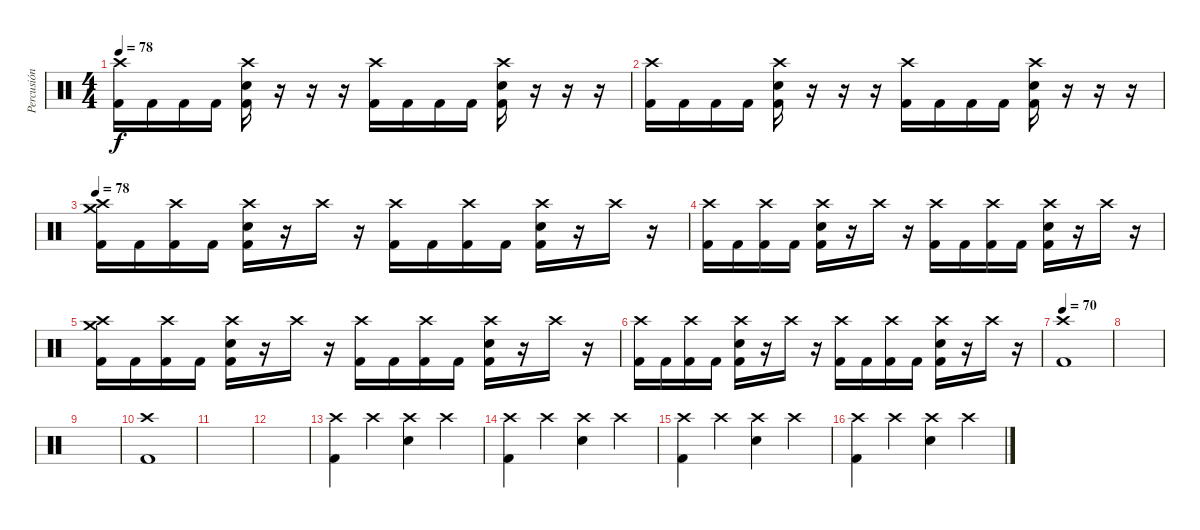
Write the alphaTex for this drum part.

\track ("Percusión" "Percusión") {instrument percussion}
\staff {score}
\articulation defaults
\ts (4 4)
\tempo 78
\clef neutral
\ks c
("Crash high (hit)" "Kick (hit) 2").16{dy f} "Kick (hit) 2".16 "Kick (hit) 2".16 "Kick (hit) 2".16 ("Crash high (hit)" "Snare (hit) 2" "Kick (hit) 2").16 r.16 r.16 r.16 ("Crash high (hit)" "Kick (hit) 2").16 "Kick (hit) 2".16 "Kick (hit) 2".16 "Kick (hit) 2".16 ("Crash high (hit)" "Snare (hit) 2" "Kick (hit) 2").16 r.16 r.16 r.16 |
("Crash high (hit)" "Kick (hit) 2").16 "Kick (hit) 2".16 "Kick (hit) 2".16 "Kick (hit) 2".16 ("Crash high (hit)" "Snare (hit) 2" "Kick (hit) 2").16 r.16 r.16 r.16 ("Crash high (hit)" "Kick (hit) 2").16 "Kick (hit) 2".16 "Kick (hit) 2".16 "Kick (hit) 2".16 ("Crash high (hit)" "Snare (hit) 2" "Kick (hit) 2").16 r.16 r.16 r.16 |
\tempo 78
("Crash medium (hit)" "Crash high (hit)" "Kick (hit) 2").16 "Kick (hit) 2".16 ("Crash high (hit)" "Kick (hit) 2").16 "Kick (hit) 2".16 ("Crash high (hit)" "Snare (hit) 2" "Kick (hit) 2").16 r.16 "Crash high (hit)".16 r.16 ("Crash high (hit)" "Kick (hit) 2").16 "Kick (hit) 2".16 ("Crash high (hit)" "Kick (hit) 2").16 "Kick (hit) 2".16 ("Crash high (hit)" "Snare (hit) 2" "Kick (hit) 2").16 r.16 "Crash high (hit)".16 r.16 |
("Crash high (hit)" "Kick (hit) 2").16 "Kick (hit) 2".16 ("Crash high (hit)" "Kick (hit) 2").16 "Kick (hit) 2".16 ("Crash high (hit)" "Snare (hit) 2" "Kick (hit) 2").16 r.16 "Crash high (hit)".16 r.16 ("Crash high (hit)" "Kick (hit) 2").16 "Kick (hit) 2".16 ("Crash high (hit)" "Kick (hit) 2").16 "Kick (hit) 2".16 ("Crash high (hit)" "Snare (hit) 2" "Kick (hit) 2").16 r.16 "Crash high (hit)".16 r.16 |
("Crash medium (hit)" "Crash high (hit)" "Kick (hit) 2").16 "Kick (hit) 2".16 ("Crash high (hit)" "Kick (hit) 2").16 "Kick (hit) 2".16 ("Crash high (hit)" "Snare (hit) 2" "Kick (hit) 2").16 r.16 "Crash high (hit)".16 r.16 ("Crash high (hit)" "Kick (hit) 2").16 "Kick (hit) 2".16 ("Crash high (hit)" "Kick (hit) 2").16 "Kick (hit) 2".16 ("Crash high (hit)" "Snare (hit) 2" "Kick (hit) 2").16 r.16 "Crash high (hit)".16 r.16 |
("Crash high (hit)" "Kick (hit) 2").16 "Kick (hit) 2".16 ("Crash high (hit)" "Kick (hit) 2").16 "Kick (hit) 2".16 ("Crash high (hit)" "Snare (hit) 2" "Kick (hit) 2").16 r.16 "Crash high (hit)".16 r.16 ("Crash high (hit)" "Kick (hit) 2").16 "Kick (hit) 2".16 ("Crash high (hit)" "Kick (hit) 2").16 "Kick (hit) 2".16 ("Crash high (hit)" "Snare (hit) 2" "Kick (hit) 2").16 r.16 "Crash high (hit)".16 r.16 |
\tempo 70
("Crash high (hit)" "Kick (hit) 2").1 |
|
|
("Crash high (hit)" "Kick (hit) 2").1 |
|
|
("Crash high (hit)" "Kick (hit) 2").4 "Crash high (hit)".4 ("Crash high (hit)" "Snare (hit) 2").4 "Crash high (hit)".4 |
("Crash high (hit)" "Kick (hit) 2").4 "Crash high (hit)".4 ("Crash high (hit)" "Snare (hit) 2").4 "Crash high (hit)".4 |
("Crash high (hit)" "Kick (hit) 2").4 "Crash high (hit)".4 ("Crash high (hit)" "Snare (hit) 2").4 "Crash high (hit)".4 |
("Crash high (hit)" "Kick (hit) 2").4 "Crash high (hit)".4 ("Crash high (hit)" "Snare (hit) 2").4 "Crash high (hit)".4
